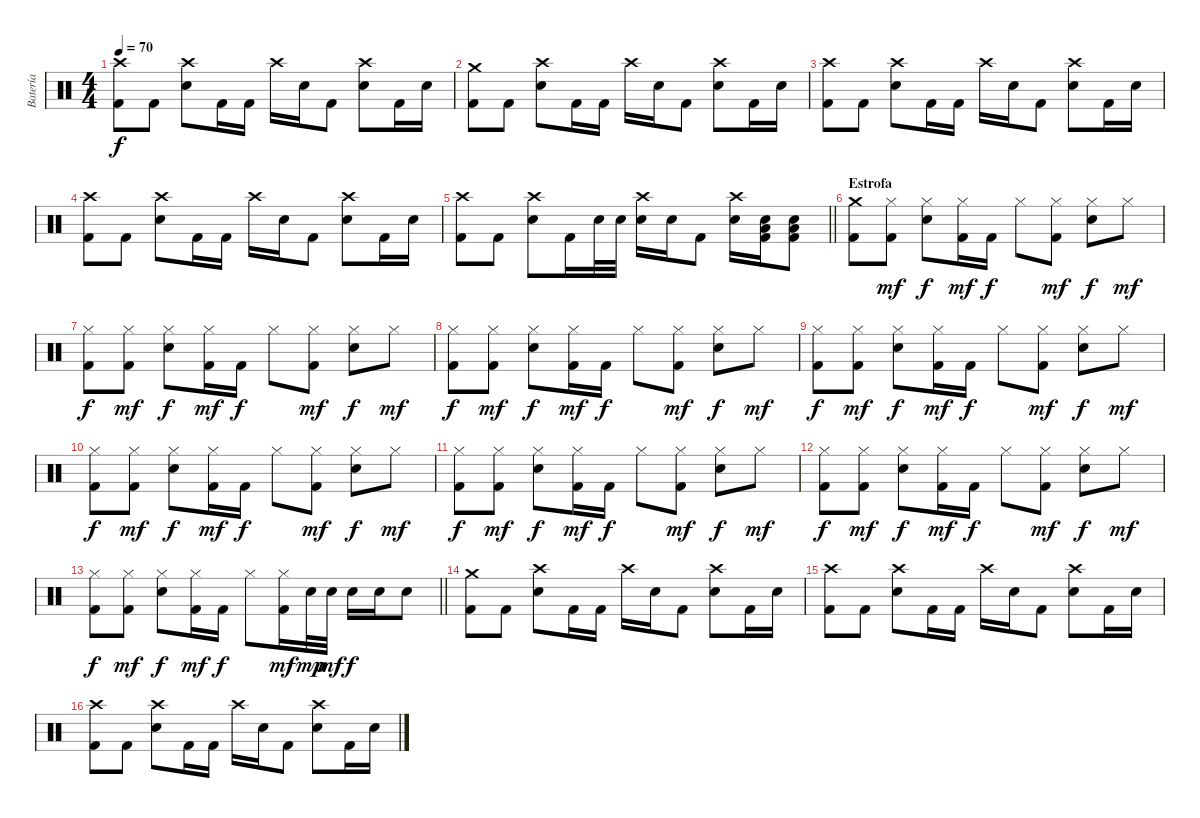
\track ("Batería" "Batería") {instrument percussion}
\staff {score}
\articulation defaults
\ts (4 4)
\tempo 70
\clef neutral
\ks c
("Crash high (hit)" "Kick (hit) 2").8{dy f} "Kick (hit) 2".8 ("Crash high (hit)" "Electric Snare (hit)").8 "Kick (hit) 2".16 "Kick (hit) 2".16 "Crash high (hit)".16 "Electric Snare (hit)".16 "Kick (hit) 2".8 ("Crash high (hit)" "Electric Snare (hit)").8 "Kick (hit) 2".16 "Electric Snare (hit)".16 |
("Crash medium (hit)" "Kick (hit) 2").8 "Kick (hit) 2".8 ("Crash high (hit)" "Electric Snare (hit)").8 "Kick (hit) 2".16 "Kick (hit) 2".16 "Crash high (hit)".16 "Electric Snare (hit)".16 "Kick (hit) 2".8 ("Crash high (hit)" "Electric Snare (hit)").8 "Kick (hit) 2".16 "Electric Snare (hit)".16 |
("Crash high (hit)" "Kick (hit) 2").8 "Kick (hit) 2".8 ("Crash high (hit)" "Electric Snare (hit)").8 "Kick (hit) 2".16 "Kick (hit) 2".16 "Crash high (hit)".16 "Electric Snare (hit)".16 "Kick (hit) 2".8 ("Crash high (hit)" "Electric Snare (hit)").8 "Kick (hit) 2".16 "Electric Snare (hit)".16 |
("Crash high (hit)" "Kick (hit) 2").8 "Kick (hit) 2".8 ("Crash high (hit)" "Electric Snare (hit)").8 "Kick (hit) 2".16 "Kick (hit) 2".16 "Crash high (hit)".16 "Electric Snare (hit)".16 "Kick (hit) 2".8 ("Crash high (hit)" "Electric Snare (hit)").8 "Kick (hit) 2".16 "Electric Snare (hit)".16 |
\barLineRight lightlight
("Crash high (hit)" "Kick (hit) 2").8 "Kick (hit) 2".8 ("Crash high (hit)" "Electric Snare (hit)").8 "Kick (hit) 2".16 "Electric Snare (hit)".32 "Electric Snare (hit)".32 ("Crash high (hit)" "Electric Snare (hit)").16 "Electric Snare (hit)".16 "Kick (hit) 2".8 ("Crash high (hit)" "Electric Snare (hit)").16 ("Low Floor Tom (hit)" "Electric Snare (hit)" "Kick (hit) 2").16 ("Low Floor Tom (hit)" "Electric Snare (hit)" "Kick (hit) 2").8 |
\section ("" "Estrofa")
("Crash medium (hit)" "Kick (hit) 2").8 ("Hi-Hat (closed)" "Kick (hit) 2").8{dy mf} ("Hi-Hat (closed)" "Electric Snare (hit)").8{dy f} ("Hi-Hat (closed)" "Kick (hit) 2").16{dy mf} "Kick (hit) 2".16{dy f} "Hi-Hat (closed)".8 ("Hi-Hat (closed)" "Kick (hit) 2").8{dy mf} ("Hi-Hat (closed)" "Electric Snare (hit)").8{dy f} "Hi-Hat (closed)".8{dy mf} |
("Hi-Hat (closed)" "Kick (hit) 2").8{dy f} ("Hi-Hat (closed)" "Kick (hit) 2").8{dy mf} ("Hi-Hat (closed)" "Electric Snare (hit)").8{dy f} ("Hi-Hat (closed)" "Kick (hit) 2").16{dy mf} "Kick (hit) 2".16{dy f} "Hi-Hat (closed)".8 ("Hi-Hat (closed)" "Kick (hit) 2").8{dy mf} ("Hi-Hat (closed)" "Electric Snare (hit)").8{dy f} "Hi-Hat (closed)".8{dy mf} |
("Hi-Hat (closed)" "Kick (hit) 2").8{dy f} ("Hi-Hat (closed)" "Kick (hit) 2").8{dy mf} ("Hi-Hat (closed)" "Electric Snare (hit)").8{dy f} ("Hi-Hat (closed)" "Kick (hit) 2").16{dy mf} "Kick (hit) 2".16{dy f} "Hi-Hat (closed)".8 ("Hi-Hat (closed)" "Kick (hit) 2").8{dy mf} ("Hi-Hat (closed)" "Electric Snare (hit)").8{dy f} "Hi-Hat (closed)".8{dy mf} |
("Hi-Hat (closed)" "Kick (hit) 2").8{dy f} ("Hi-Hat (closed)" "Kick (hit) 2").8{dy mf} ("Hi-Hat (closed)" "Electric Snare (hit)").8{dy f} ("Hi-Hat (closed)" "Kick (hit) 2").16{dy mf} "Kick (hit) 2".16{dy f} "Hi-Hat (closed)".8 ("Hi-Hat (closed)" "Kick (hit) 2").8{dy mf} ("Hi-Hat (closed)" "Electric Snare (hit)").8{dy f} "Hi-Hat (closed)".8{dy mf} |
("Hi-Hat (closed)" "Kick (hit) 2").8{dy f} ("Hi-Hat (closed)" "Kick (hit) 2").8{dy mf} ("Hi-Hat (closed)" "Electric Snare (hit)").8{dy f} ("Hi-Hat (closed)" "Kick (hit) 2").16{dy mf} "Kick (hit) 2".16{dy f} "Hi-Hat (closed)".8 ("Hi-Hat (closed)" "Kick (hit) 2").8{dy mf} ("Hi-Hat (closed)" "Electric Snare (hit)").8{dy f} "Hi-Hat (closed)".8{dy mf} |
("Hi-Hat (closed)" "Kick (hit) 2").8{dy f} ("Hi-Hat (closed)" "Kick (hit) 2").8{dy mf} ("Hi-Hat (closed)" "Electric Snare (hit)").8{dy f} ("Hi-Hat (closed)" "Kick (hit) 2").16{dy mf} "Kick (hit) 2".16{dy f} "Hi-Hat (closed)".8 ("Hi-Hat (closed)" "Kick (hit) 2").8{dy mf} ("Hi-Hat (closed)" "Electric Snare (hit)").8{dy f} "Hi-Hat (closed)".8{dy mf} |
("Hi-Hat (closed)" "Kick (hit) 2").8{dy f} ("Hi-Hat (closed)" "Kick (hit) 2").8{dy mf} ("Hi-Hat (closed)" "Electric Snare (hit)").8{dy f} ("Hi-Hat (closed)" "Kick (hit) 2").16{dy mf} "Kick (hit) 2".16{dy f} "Hi-Hat (closed)".8 ("Hi-Hat (closed)" "Kick (hit) 2").8{dy mf} ("Hi-Hat (closed)" "Electric Snare (hit)").8{dy f} "Hi-Hat (closed)".8{dy mf} |
\barLineRight lightlight
("Hi-Hat (closed)" "Kick (hit) 2").8{dy f} ("Hi-Hat (closed)" "Kick (hit) 2").8{dy mf} ("Hi-Hat (closed)" "Electric Snare (hit)").8{dy f} ("Hi-Hat (closed)" "Kick (hit) 2").16{dy mf} "Kick (hit) 2".16{dy f} "Hi-Hat (closed)".8 ("Hi-Hat (closed)" "Kick (hit) 2").16{dy mf} "Electric Snare (hit)".32{dy mp} "Electric Snare (hit)".32{dy mf} "Electric Snare (hit)".16{dy f} "Electric Snare (hit)".16 "Electric Snare (hit)".8 |
("Crash medium (hit)" "Kick (hit) 2").8 "Kick (hit) 2".8 ("Crash high (hit)" "Electric Snare (hit)").8 "Kick (hit) 2".16 "Kick (hit) 2".16 "Crash high (hit)".16 "Electric Snare (hit)".16 "Kick (hit) 2".8 ("Crash high (hit)" "Electric Snare (hit)").8 "Kick (hit) 2".16 "Electric Snare (hit)".16 |
("Crash high (hit)" "Kick (hit) 2").8 "Kick (hit) 2".8 ("Crash high (hit)" "Electric Snare (hit)").8 "Kick (hit) 2".16 "Kick (hit) 2".16 "Crash high (hit)".16 "Electric Snare (hit)".16 "Kick (hit) 2".8 ("Crash high (hit)" "Electric Snare (hit)").8 "Kick (hit) 2".16 "Electric Snare (hit)".16 |
("Crash high (hit)" "Kick (hit) 2").8 "Kick (hit) 2".8 ("Crash high (hit)" "Electric Snare (hit)").8 "Kick (hit) 2".16 "Kick (hit) 2".16 "Crash high (hit)".16 "Electric Snare (hit)".16 "Kick (hit) 2".8 ("Crash high (hit)" "Electric Snare (hit)").8 "Kick (hit) 2".16 "Electric Snare (hit)".16
